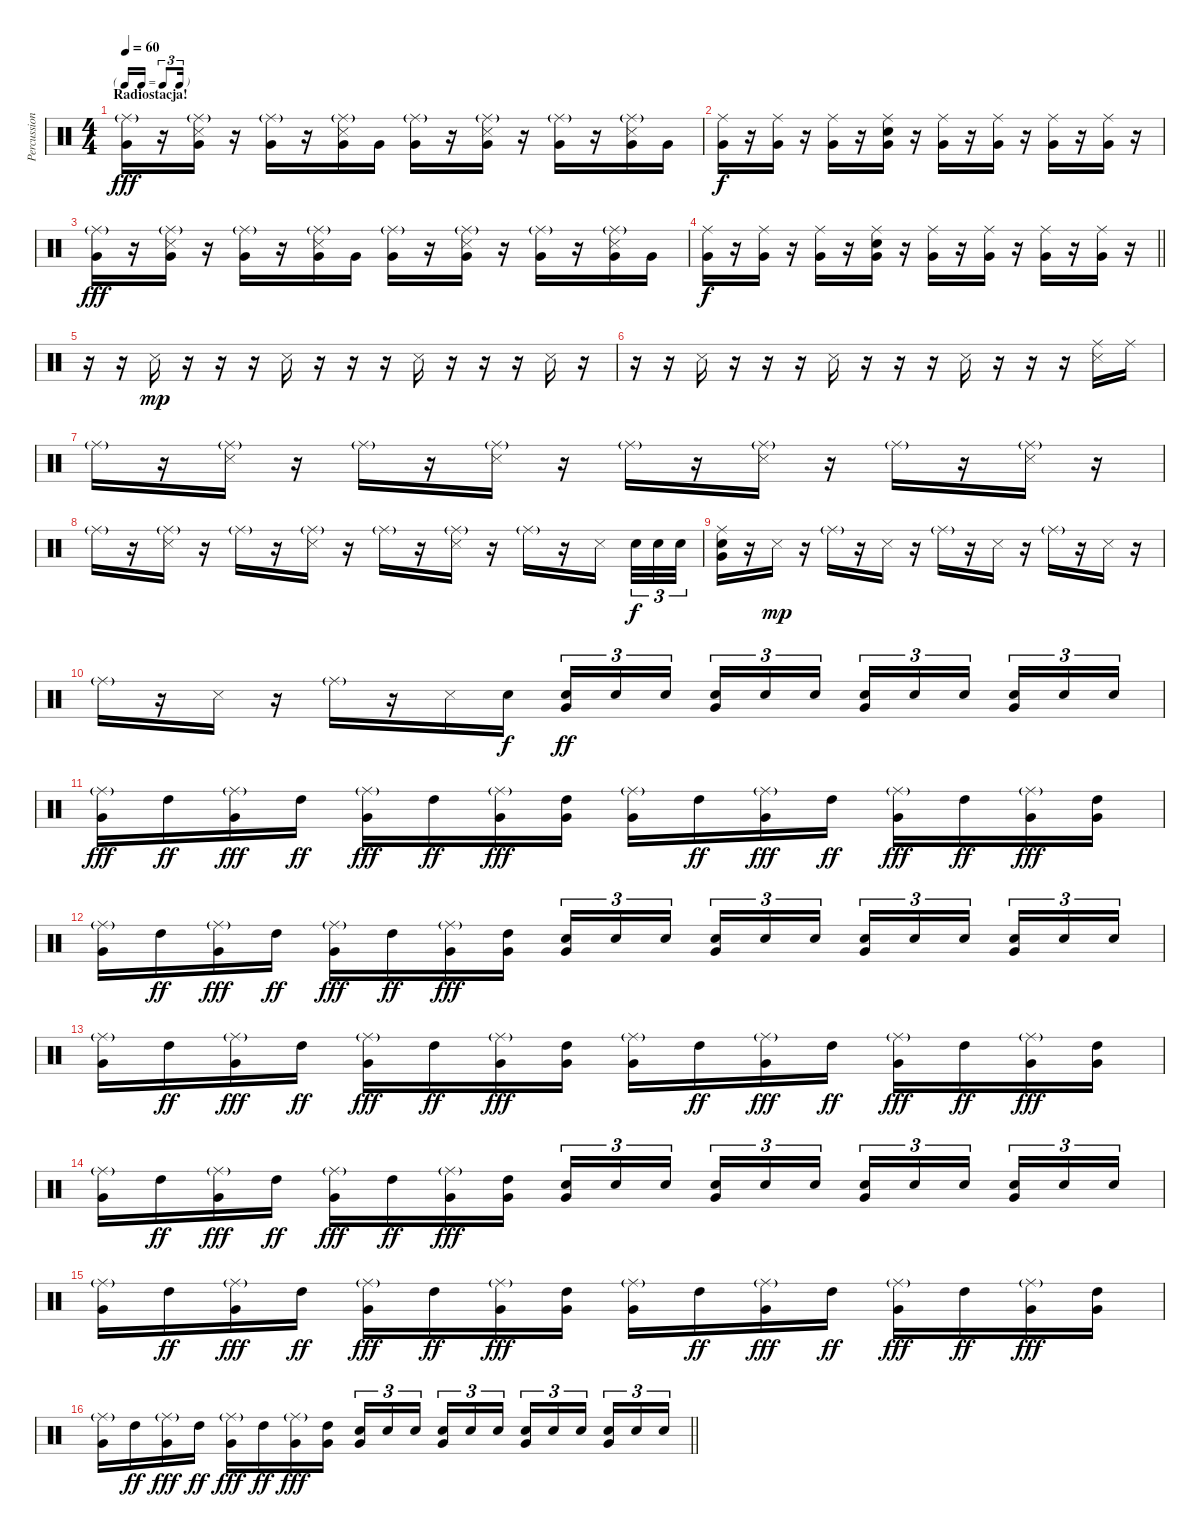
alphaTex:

\track ("Percussion" "Percussion") {instrument percussion}
\staff {score}
\articulation defaults
\ts (4 4)
\tf triplet16th
\section ("" "Radiostacja!")
\tempo 60
\clef neutral
\ks c
("Ride (middle)"{g} "Very Low Tom (hit)").16{dy fff} r.16 ("Ride (middle)"{g} "Metronome (hit)" "Very Low Tom (hit)").16 r.16 ("Ride (middle)"{g} "Very Low Tom (hit)").16 r.16 ("Ride (middle)"{g} "Metronome (hit)" "Very Low Tom (hit)").16 "Very Low Tom (hit)".16 ("Ride (middle)"{g} "Very Low Tom (hit)").16 r.16 ("Ride (middle)"{g} "Metronome (hit)" "Very Low Tom (hit)").16 r.16 ("Ride (middle)"{g} "Very Low Tom (hit)").16 r.16 ("Ride (middle)"{g} "Metronome (hit)" "Very Low Tom (hit)").16 "Very Low Tom (hit)".16 |
("Ride (middle)" "Very Low Tom (hit)").16{dy f} r.16 ("Ride (middle)" "Very Low Tom (hit)").16 r.16 ("Ride (middle)" "Very Low Tom (hit)").16 r.16 ("Ride (middle)" "Snare (hit) 2" "Very Low Tom (hit)").16 r.16 ("Ride (middle)" "Very Low Tom (hit)").16 r.16 ("Ride (middle)" "Very Low Tom (hit)").16 r.16 ("Ride (middle)" "Very Low Tom (hit)").16 r.16 ("Ride (middle)" "Very Low Tom (hit)").16 r.16 |
("Ride (middle)"{g} "Very Low Tom (hit)").16{dy fff} r.16 ("Ride (middle)"{g} "Metronome (hit)" "Very Low Tom (hit)").16 r.16 ("Ride (middle)"{g} "Very Low Tom (hit)").16 r.16 ("Ride (middle)"{g} "Metronome (hit)" "Very Low Tom (hit)").16 "Very Low Tom (hit)".16 ("Ride (middle)"{g} "Very Low Tom (hit)").16 r.16 ("Ride (middle)"{g} "Metronome (hit)" "Very Low Tom (hit)").16 r.16 ("Ride (middle)"{g} "Very Low Tom (hit)").16 r.16 ("Ride (middle)"{g} "Metronome (hit)" "Very Low Tom (hit)").16 "Very Low Tom (hit)".16 |
\barLineRight lightlight
("Ride (middle)" "Very Low Tom (hit)").16{dy f} r.16 ("Ride (middle)" "Very Low Tom (hit)").16 r.16 ("Ride (middle)" "Very Low Tom (hit)").16 r.16 ("Ride (middle)" "Snare (hit) 2" "Very Low Tom (hit)").16 r.16 ("Ride (middle)" "Very Low Tom (hit)").16 r.16 ("Ride (middle)" "Very Low Tom (hit)").16 r.16 ("Ride (middle)" "Very Low Tom (hit)").16 r.16 ("Ride (middle)" "Very Low Tom (hit)").16 r.16 |
\section ("" "")
r.16 r.16 "Metronome (hit)".16{dy mp} r.16 r.16 r.16 "Metronome (hit)".16 r.16 r.16 r.16 "Metronome (hit)".16 r.16 r.16 r.16 "Metronome (hit)".16 r.16 |
r.16 r.16 "Metronome (hit)".16 r.16 r.16 r.16 "Metronome (hit)".16 r.16 r.16 r.16 "Metronome (hit)".16 r.16 r.16 r.16 ("Ride (middle)" "Metronome (hit)").16 "Ride (middle)".16 |
"Ride (middle)"{g}.16 r.16 ("Ride (middle)"{g} "Metronome (hit)").16 r.16 "Ride (middle)"{g}.16 r.16 ("Ride (middle)"{g} "Metronome (hit)").16 r.16 "Ride (middle)"{g}.16 r.16 ("Ride (middle)"{g} "Metronome (hit)").16 r.16 "Ride (middle)"{g}.16 r.16 ("Ride (middle)"{g} "Metronome (hit)").16 r.16 |
"Ride (middle)"{g}.16 r.16 ("Ride (middle)"{g} "Metronome (hit)").16 r.16 "Ride (middle)"{g}.16 r.16 ("Ride (middle)"{g} "Metronome (hit)").16 r.16 "Ride (middle)"{g}.16 r.16 ("Ride (middle)"{g} "Metronome (hit)").16 r.16 "Ride (middle)"{g}.16 r.16 "Metronome (hit)".16{beam splitsecondary} "Hand Clap (hit)".32{tu (3 2) dy f} "Hand Clap (hit)".32{tu (3 2)} "Hand Clap (hit)".32{tu (3 2)} |
("Ride (middle)" "Hand Clap (hit)" "Very Low Tom (hit)").16 r.16 "Metronome (hit)".16{dy mp} r.16 "Ride (middle)"{g}.16 r.16 "Metronome (hit)".16 r.16 "Ride (middle)"{g}.16 r.16 "Metronome (hit)".16 r.16 "Ride (middle)"{g}.16 r.16 "Metronome (hit)".16 r.16 |
"Ride (middle)"{g}.16 r.16 "Metronome (hit)".16 r.16 "Ride (middle)"{g}.16 r.16 "Metronome (hit)".16 "Hand Clap (hit)".16{dy f} ("Hand Clap (hit)" "Very Low Tom (hit)").16{tu (3 2) dy ff} "Hand Clap (hit)".16{tu (3 2)} "Hand Clap (hit)".16{tu (3 2) beam splitsecondary} ("Hand Clap (hit)" "Very Low Tom (hit)").16{tu (3 2)} "Hand Clap (hit)".16{tu (3 2)} "Hand Clap (hit)".16{tu (3 2)} ("Hand Clap (hit)" "Very Low Tom (hit)").16{tu (3 2)} "Hand Clap (hit)".16{tu (3 2)} "Hand Clap (hit)".16{tu (3 2) beam splitsecondary} ("Hand Clap (hit)" "Very Low Tom (hit)").16{tu (3 2)} "Hand Clap (hit)".16{tu (3 2)} "Hand Clap (hit)".16{tu (3 2)} |
("Ride (middle)"{g} "Very Low Tom (hit)").16{dy fff} "High Tom (hit)".16{dy ff} ("Ride (middle)"{g} "Very Low Tom (hit)").16{dy fff} "High Tom (hit)".16{dy ff} ("Ride (middle)"{g} "Very Low Tom (hit)").16{dy fff} "High Tom (hit)".16{dy ff} ("Ride (middle)"{g} "Very Low Tom (hit)").16{dy fff} ("High Tom (hit)" "Very Low Tom (hit)").16 ("Ride (middle)"{g} "Very Low Tom (hit)").16 "High Tom (hit)".16{dy ff} ("Ride (middle)"{g} "Very Low Tom (hit)").16{dy fff} "High Tom (hit)".16{dy ff} ("Ride (middle)"{g} "Very Low Tom (hit)").16{dy fff} "High Tom (hit)".16{dy ff} ("Ride (middle)"{g} "Very Low Tom (hit)").16{dy fff} ("High Tom (hit)" "Very Low Tom (hit)").16 |
("Ride (middle)"{g} "Very Low Tom (hit)").16 "High Tom (hit)".16{dy ff} ("Ride (middle)"{g} "Very Low Tom (hit)").16{dy fff} "High Tom (hit)".16{dy ff} ("Ride (middle)"{g} "Very Low Tom (hit)").16{dy fff} "High Tom (hit)".16{dy ff} ("Ride (middle)"{g} "Very Low Tom (hit)").16{dy fff} ("High Tom (hit)" "Very Low Tom (hit)").16 ("Hand Clap (hit)" "Very Low Tom (hit)").16{tu (3 2)} "Hand Clap (hit)".16{tu (3 2)} "Hand Clap (hit)".16{tu (3 2) beam splitsecondary} ("Hand Clap (hit)" "Very Low Tom (hit)").16{tu (3 2)} "Hand Clap (hit)".16{tu (3 2)} "Hand Clap (hit)".16{tu (3 2)} ("Hand Clap (hit)" "Very Low Tom (hit)").16{tu (3 2)} "Hand Clap (hit)".16{tu (3 2)} "Hand Clap (hit)".16{tu (3 2) beam splitsecondary} ("Hand Clap (hit)" "Very Low Tom (hit)").16{tu (3 2)} "Hand Clap (hit)".16{tu (3 2)} "Hand Clap (hit)".16{tu (3 2)} |
("Ride (middle)"{g} "Very Low Tom (hit)").16 "High Tom (hit)".16{dy ff} ("Ride (middle)"{g} "Very Low Tom (hit)").16{dy fff} "High Tom (hit)".16{dy ff} ("Ride (middle)"{g} "Very Low Tom (hit)").16{dy fff} "High Tom (hit)".16{dy ff} ("Ride (middle)"{g} "Very Low Tom (hit)").16{dy fff} ("High Tom (hit)" "Very Low Tom (hit)").16 ("Ride (middle)"{g} "Very Low Tom (hit)").16 "High Tom (hit)".16{dy ff} ("Ride (middle)"{g} "Very Low Tom (hit)").16{dy fff} "High Tom (hit)".16{dy ff} ("Ride (middle)"{g} "Very Low Tom (hit)").16{dy fff} "High Tom (hit)".16{dy ff} ("Ride (middle)"{g} "Very Low Tom (hit)").16{dy fff} ("High Tom (hit)" "Very Low Tom (hit)").16 |
("Ride (middle)"{g} "Very Low Tom (hit)").16 "High Tom (hit)".16{dy ff} ("Ride (middle)"{g} "Very Low Tom (hit)").16{dy fff} "High Tom (hit)".16{dy ff} ("Ride (middle)"{g} "Very Low Tom (hit)").16{dy fff} "High Tom (hit)".16{dy ff} ("Ride (middle)"{g} "Very Low Tom (hit)").16{dy fff} ("High Tom (hit)" "Very Low Tom (hit)").16 ("Hand Clap (hit)" "Very Low Tom (hit)").16{tu (3 2)} "Hand Clap (hit)".16{tu (3 2)} "Hand Clap (hit)".16{tu (3 2) beam splitsecondary} ("Hand Clap (hit)" "Very Low Tom (hit)").16{tu (3 2)} "Hand Clap (hit)".16{tu (3 2)} "Hand Clap (hit)".16{tu (3 2)} ("Hand Clap (hit)" "Very Low Tom (hit)").16{tu (3 2)} "Hand Clap (hit)".16{tu (3 2)} "Hand Clap (hit)".16{tu (3 2) beam splitsecondary} ("Hand Clap (hit)" "Very Low Tom (hit)").16{tu (3 2)} "Hand Clap (hit)".16{tu (3 2)} "Hand Clap (hit)".16{tu (3 2)} |
("Ride (middle)"{g} "Very Low Tom (hit)").16 "High Tom (hit)".16{dy ff} ("Ride (middle)"{g} "Very Low Tom (hit)").16{dy fff} "High Tom (hit)".16{dy ff} ("Ride (middle)"{g} "Very Low Tom (hit)").16{dy fff} "High Tom (hit)".16{dy ff} ("Ride (middle)"{g} "Very Low Tom (hit)").16{dy fff} ("High Tom (hit)" "Very Low Tom (hit)").16 ("Ride (middle)"{g} "Very Low Tom (hit)").16 "High Tom (hit)".16{dy ff} ("Ride (middle)"{g} "Very Low Tom (hit)").16{dy fff} "High Tom (hit)".16{dy ff} ("Ride (middle)"{g} "Very Low Tom (hit)").16{dy fff} "High Tom (hit)".16{dy ff} ("Ride (middle)"{g} "Very Low Tom (hit)").16{dy fff} ("High Tom (hit)" "Very Low Tom (hit)").16 |
\barLineRight lightlight
("Ride (middle)"{g} "Very Low Tom (hit)").16 "High Tom (hit)".16{dy ff} ("Ride (middle)"{g} "Very Low Tom (hit)").16{dy fff} "High Tom (hit)".16{dy ff} ("Ride (middle)"{g} "Very Low Tom (hit)").16{dy fff} "High Tom (hit)".16{dy ff} ("Ride (middle)"{g} "Very Low Tom (hit)").16{dy fff} ("High Tom (hit)" "Very Low Tom (hit)").16 ("Hand Clap (hit)" "Very Low Tom (hit)").16{tu (3 2)} "Hand Clap (hit)".16{tu (3 2)} "Hand Clap (hit)".16{tu (3 2) beam splitsecondary} ("Hand Clap (hit)" "Very Low Tom (hit)").16{tu (3 2)} "Hand Clap (hit)".16{tu (3 2)} "Hand Clap (hit)".16{tu (3 2)} ("Hand Clap (hit)" "Very Low Tom (hit)").16{tu (3 2)} "Hand Clap (hit)".16{tu (3 2)} "Hand Clap (hit)".16{tu (3 2) beam splitsecondary} ("Hand Clap (hit)" "Very Low Tom (hit)").16{tu (3 2)} "Hand Clap (hit)".16{tu (3 2)} "Hand Clap (hit)".16{tu (3 2)}
